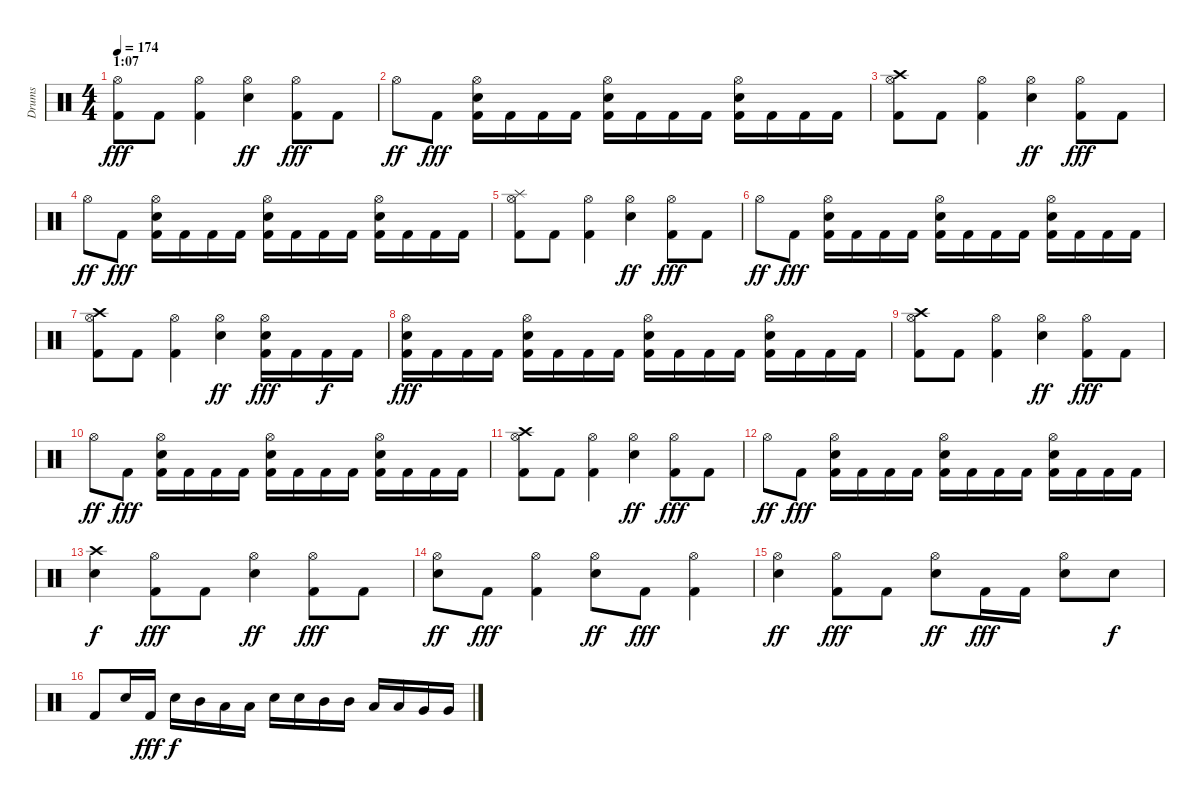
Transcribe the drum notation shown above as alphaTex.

\track ("Drums" "Drums") {instrument percussion}
\staff {score}
\articulation defaults
\ts (4 4)
\section ("" "1:07")
\tempo 174
\clef neutral
\ks c
("Hi-Hat (open)" "Kick (hit) 2").8{dy fff} "Kick (hit) 2".8 ("Hi-Hat (open)" "Kick (hit) 2").4 ("Hi-Hat (open)" "Snare (hit) 2").4{dy ff} ("Hi-Hat (open)" "Kick (hit) 2").8{dy fff} "Kick (hit) 2".8 |
"Hi-Hat (open)".8{dy ff} "Kick (hit) 2".8{dy fff} ("Hi-Hat (open)" "Snare (hit) 2" "Kick (hit) 2").16 "Kick (hit) 2".16 "Kick (hit) 2".16 "Kick (hit) 2".16 ("Hi-Hat (open)" "Snare (hit) 2" "Kick (hit) 2").16 "Kick (hit) 2".16 "Kick (hit) 2".16 "Kick (hit) 2".16 ("Hi-Hat (open)" "Snare (hit) 2" "Kick (hit) 2").16 "Kick (hit) 2".16 "Kick (hit) 2".16 "Kick (hit) 2".16 |
("Crash high (hit)" "Hi-Hat (open)" "Kick (hit) 2").8 "Kick (hit) 2".8 ("Hi-Hat (open)" "Kick (hit) 2").4 ("Hi-Hat (open)" "Snare (hit) 2").4{dy ff} ("Hi-Hat (open)" "Kick (hit) 2").8{dy fff} "Kick (hit) 2".8 |
"Hi-Hat (open)".8{dy ff} "Kick (hit) 2".8{dy fff} ("Hi-Hat (open)" "Snare (hit) 2" "Kick (hit) 2").16 "Kick (hit) 2".16 "Kick (hit) 2".16 "Kick (hit) 2".16 ("Hi-Hat (open)" "Snare (hit) 2" "Kick (hit) 2").16 "Kick (hit) 2".16 "Kick (hit) 2".16 "Kick (hit) 2".16 ("Hi-Hat (open)" "Snare (hit) 2" "Kick (hit) 2").16 "Kick (hit) 2".16 "Kick (hit) 2".16 "Kick (hit) 2".16 |
("Splash (hit)" "Hi-Hat (open)" "Kick (hit) 2").8 "Kick (hit) 2".8 ("Hi-Hat (open)" "Kick (hit) 2").4 ("Hi-Hat (open)" "Snare (hit) 2").4{dy ff} ("Hi-Hat (open)" "Kick (hit) 2").8{dy fff} "Kick (hit) 2".8 |
"Hi-Hat (open)".8{dy ff} "Kick (hit) 2".8{dy fff} ("Hi-Hat (open)" "Snare (hit) 2" "Kick (hit) 2").16 "Kick (hit) 2".16 "Kick (hit) 2".16 "Kick (hit) 2".16 ("Hi-Hat (open)" "Snare (hit) 2" "Kick (hit) 2").16 "Kick (hit) 2".16 "Kick (hit) 2".16 "Kick (hit) 2".16 ("Hi-Hat (open)" "Snare (hit) 2" "Kick (hit) 2").16 "Kick (hit) 2".16 "Kick (hit) 2".16 "Kick (hit) 2".16 |
("Crash high (hit)" "Hi-Hat (open)" "Kick (hit) 2").8 "Kick (hit) 2".8 ("Hi-Hat (open)" "Kick (hit) 2").4 ("Hi-Hat (open)" "Snare (hit) 2").4{dy ff} ("Hi-Hat (open)" "Snare (hit) 2" "Kick (hit) 2").16{dy fff} "Kick (hit) 2".16 "Kick (hit) 2".16{dy f} "Kick (hit) 2".16 |
("Hi-Hat (open)" "Snare (hit) 2" "Kick (hit) 2").16{dy fff} "Kick (hit) 2".16 "Kick (hit) 2".16 "Kick (hit) 2".16 ("Hi-Hat (open)" "Snare (hit) 2" "Kick (hit) 2").16 "Kick (hit) 2".16 "Kick (hit) 2".16 "Kick (hit) 2".16 ("Hi-Hat (open)" "Snare (hit) 2" "Kick (hit) 2").16 "Kick (hit) 2".16 "Kick (hit) 2".16 "Kick (hit) 2".16 ("Hi-Hat (open)" "Snare (hit) 2" "Kick (hit) 2").16 "Kick (hit) 2".16 "Kick (hit) 2".16 "Kick (hit) 2".16 |
("Crash high (hit)" "Hi-Hat (open)" "Kick (hit) 2").8 "Kick (hit) 2".8 ("Hi-Hat (open)" "Kick (hit) 2").4 ("Hi-Hat (open)" "Snare (hit) 2").4{dy ff} ("Hi-Hat (open)" "Kick (hit) 2").8{dy fff} "Kick (hit) 2".8 |
"Hi-Hat (open)".8{dy ff} "Kick (hit) 2".8{dy fff} ("Hi-Hat (open)" "Snare (hit) 2" "Kick (hit) 2").16 "Kick (hit) 2".16 "Kick (hit) 2".16 "Kick (hit) 2".16 ("Hi-Hat (open)" "Snare (hit) 2" "Kick (hit) 2").16 "Kick (hit) 2".16 "Kick (hit) 2".16 "Kick (hit) 2".16 ("Hi-Hat (open)" "Snare (hit) 2" "Kick (hit) 2").16 "Kick (hit) 2".16 "Kick (hit) 2".16 "Kick (hit) 2".16 |
("Crash high (hit)" "Hi-Hat (open)" "Kick (hit) 2").8 "Kick (hit) 2".8 ("Hi-Hat (open)" "Kick (hit) 2").4 ("Hi-Hat (open)" "Snare (hit) 2").4{dy ff} ("Hi-Hat (open)" "Kick (hit) 2").8{dy fff} "Kick (hit) 2".8 |
"Hi-Hat (open)".8{dy ff} "Kick (hit) 2".8{dy fff} ("Hi-Hat (open)" "Snare (hit) 2" "Kick (hit) 2").16 "Kick (hit) 2".16 "Kick (hit) 2".16 "Kick (hit) 2".16 ("Hi-Hat (open)" "Snare (hit) 2" "Kick (hit) 2").16 "Kick (hit) 2".16 "Kick (hit) 2".16 "Kick (hit) 2".16 ("Hi-Hat (open)" "Snare (hit) 2" "Kick (hit) 2").16 "Kick (hit) 2".16 "Kick (hit) 2".16 "Kick (hit) 2".16 |
("Crash high (hit)" "Snare (hit) 2").4{dy f} ("Hi-Hat (open)" "Kick (hit) 2").8{dy fff} "Kick (hit) 2".8 ("Hi-Hat (open)" "Snare (hit) 2").4{dy ff} ("Hi-Hat (open)" "Kick (hit) 2").8{dy fff} "Kick (hit) 2".8 |
("Hi-Hat (open)" "Snare (hit) 2").8{dy ff} "Kick (hit) 2".8{dy fff} ("Hi-Hat (open)" "Kick (hit) 2").4 ("Hi-Hat (open)" "Snare (hit) 2").8{dy ff} "Kick (hit) 2".8{dy fff} ("Hi-Hat (open)" "Kick (hit) 2").4 |
("Hi-Hat (open)" "Snare (hit) 2").4{dy ff} ("Hi-Hat (open)" "Kick (hit) 2").8{dy fff} "Kick (hit) 2".8 ("Hi-Hat (open)" "Snare (hit) 2").8{dy ff} "Kick (hit) 2".16{dy fff} "Kick (hit) 2".16 ("Hi-Hat (open)" "Snare (hit) 2").8 "Snare (hit) 2".8{dy f} |
"Kick (hit) 2".8 "Snare (hit) 2".16 "Kick (hit) 2".16{dy fff} "Snare (hit) 2".16{dy f} "Mid Tom (hit)".16 "Low Tom (hit)".16 "Low Tom (hit)".16 "Snare (hit) 2".16 "Snare (hit) 2".16 "Mid Tom (hit)".16 "Mid Tom (hit)".16 "Low Tom (hit)".16 "Low Tom (hit)".16 "Very Low Tom (hit)".16 "Very Low Tom (hit)".16
